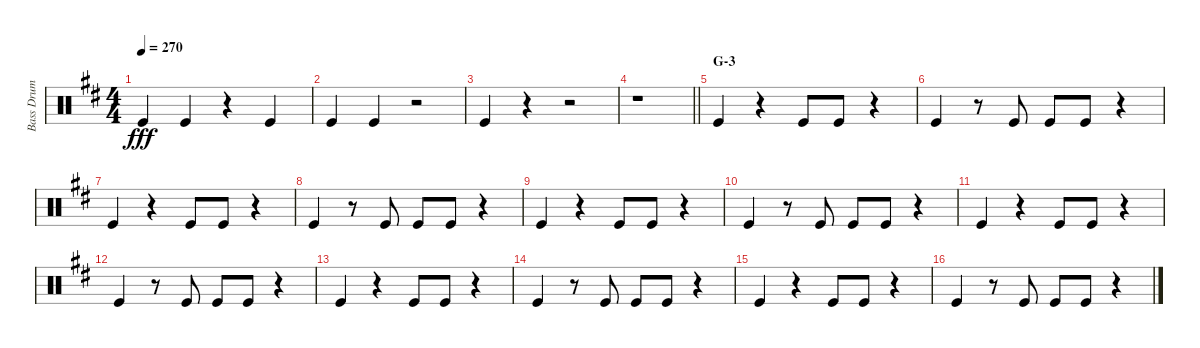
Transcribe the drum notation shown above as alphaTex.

\track ("Bass Drum" "Bass Drum") {instrument percussion}
\staff {score}
\articulation defaults
\ts (4 4)
\tempo 270
\clef neutral
\ks d "Kick (hit)".4{dy fff} "Kick (hit)".4
r.4 "Kick (hit)".4 |
"Kick (hit)".4 "Kick (hit)".4 r.2 |
"Kick (hit)".4 r.4 r.2 |
\barLineRight lightlight
r.1 |
\section ("" "G-3")
"Kick (hit)".4 r.4 "Kick (hit)".8 "Kick (hit)".8 r.4 |
"Kick (hit)".4 r.8 "Kick (hit)".8 "Kick (hit)".8 "Kick (hit)".8 r.4 |
"Kick (hit)".4 r.4 "Kick (hit)".8 "Kick (hit)".8 r.4 |
"Kick (hit)".4 r.8 "Kick (hit)".8 "Kick (hit)".8 "Kick (hit)".8 r.4 |
"Kick (hit)".4 r.4 "Kick (hit)".8 "Kick (hit)".8 r.4 |
"Kick (hit)".4 r.8 "Kick (hit)".8 "Kick (hit)".8 "Kick (hit)".8 r.4 |
"Kick (hit)".4 r.4 "Kick (hit)".8 "Kick (hit)".8 r.4 |
"Kick (hit)".4 r.8 "Kick (hit)".8 "Kick (hit)".8 "Kick (hit)".8 r.4 |
"Kick (hit)".4 r.4 "Kick (hit)".8 "Kick (hit)".8 r.4 |
"Kick (hit)".4 r.8 "Kick (hit)".8 "Kick (hit)".8 "Kick (hit)".8 r.4 |
"Kick (hit)".4 r.4 "Kick (hit)".8 "Kick (hit)".8 r.4 |
"Kick (hit)".4 r.8 "Kick (hit)".8 "Kick (hit)".8 "Kick (hit)".8 r.4
